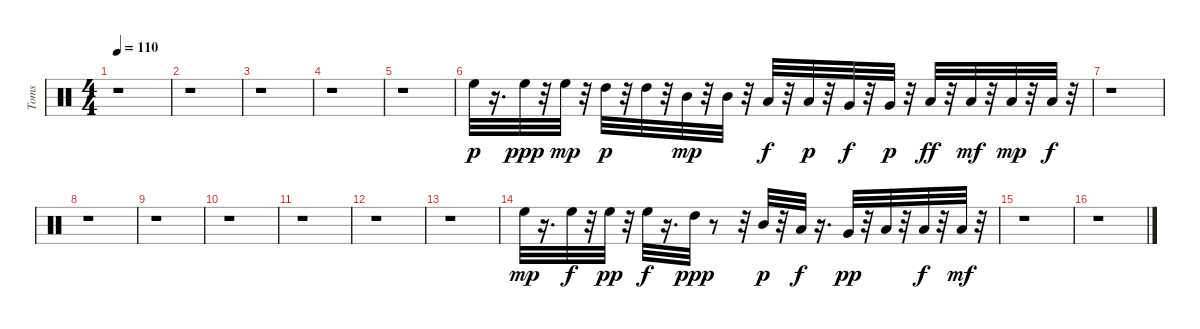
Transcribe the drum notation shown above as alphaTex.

\track ("Toms" "Toms") {instrument percussion}
\staff {score}
\articulation defaults
\ts (4 4)
\tempo 110
\clef neutral
\ks c
r.1{dy p} |
r.1 |
r.1 |
r.1 |
r.1 |
"High Floor Tom (hit)".32 r.16{d} "High Floor Tom (hit)".32{dy ppp} r.32 "High Floor Tom (hit)".32{dy mp} r.32 "High Tom (hit)".32{dy p} r.32 "High Tom (hit)".32 r.32 "Mid Tom (hit)".32{dy mp} r.32 "Mid Tom (hit)".32 r.32 "Low Tom (hit)".32{dy f} r.32 "Low Tom (hit)".32{dy p} r.32 "Very Low Tom (hit)".32{dy f} r.32 "Very Low Tom (hit)".32{dy p} r.32 "Low Floor Tom (hit)".32{dy ff} r.32 "Low Floor Tom (hit)".32{dy mf} r.32 "Low Floor Tom (hit)".32{dy mp} r.32 "Low Floor Tom (hit)".32{dy f} r.32 |
r.1 |
r.1 |
r.1 |
r.1 |
r.1 |
r.1 |
r.1 |
"High Floor Tom (hit)".32{dy mp} r.16{d} "High Floor Tom (hit)".32{dy f} r.32 "High Floor Tom (hit)".32{dy pp} r.32 "High Floor Tom (hit)".32{dy f} r.16{d} "High Tom (hit)".32{dy ppp} r.8 r.32 "Mid Tom (hit)".32{dy p} r.32 "Low Tom (hit)".32{dy f} r.16{d} "Very Low Tom (hit)".32{dy pp} r.32 "Low Floor Tom (hit)".32 r.32 "Low Floor Tom (hit)".32{dy f} r.32 "Low Floor Tom (hit)".32{dy mf} r.32 |
r.1 |
r.1
